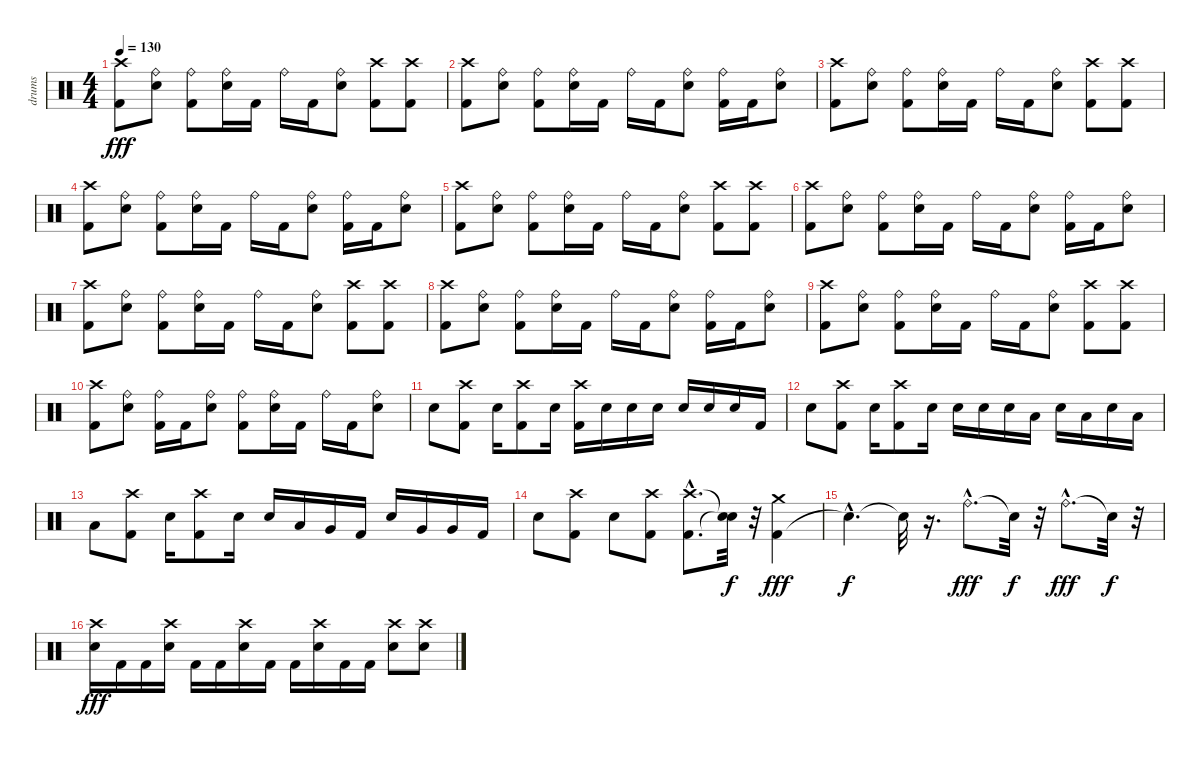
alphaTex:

\track ("drums" "drums") {instrument percussion}
\staff {score}
\articulation defaults
\ts (4 4)
\tempo 130
\clef neutral
\ks c
("Crash high (hit)" "Kick (hit) 2").8{dy fff} ("Ride (bell)" "Snare (hit) 2").8 ("Ride (bell)" "Kick (hit) 2").8 ("Ride (bell)" "Snare (hit) 2").16 "Kick (hit) 2".16 "Ride (bell)".16 "Kick (hit) 2".16 ("Ride (bell)" "Snare (hit) 2").8 ("Crash high (hit)" "Kick (hit) 2").8 ("Crash high (hit)" "Kick (hit) 2").8 |
("Crash high (hit)" "Kick (hit) 2").8 ("Ride (bell)" "Snare (hit) 2").8 ("Ride (bell)" "Kick (hit) 2").8 ("Ride (bell)" "Snare (hit) 2").16 "Kick (hit) 2".16 "Ride (bell)".16 "Kick (hit) 2".16 ("Ride (bell)" "Snare (hit) 2").8 ("Ride (bell)" "Kick (hit) 2").16 "Kick (hit) 2".16 ("Ride (bell)" "Snare (hit) 2").8 |
("Crash high (hit)" "Kick (hit) 2").8 ("Ride (bell)" "Snare (hit) 2").8 ("Ride (bell)" "Kick (hit) 2").8 ("Ride (bell)" "Snare (hit) 2").16 "Kick (hit) 2".16 "Ride (bell)".16 "Kick (hit) 2".16 ("Ride (bell)" "Snare (hit) 2").8 ("Crash high (hit)" "Kick (hit) 2").8 ("Crash high (hit)" "Kick (hit) 2").8 |
("Crash high (hit)" "Kick (hit) 2").8 ("Ride (bell)" "Snare (hit) 2").8 ("Ride (bell)" "Kick (hit) 2").8 ("Ride (bell)" "Snare (hit) 2").16 "Kick (hit) 2".16 "Ride (bell)".16 "Kick (hit) 2".16 ("Ride (bell)" "Snare (hit) 2").8 ("Ride (bell)" "Kick (hit) 2").16 "Kick (hit) 2".16 ("Ride (bell)" "Snare (hit) 2").8 |
("Crash high (hit)" "Kick (hit) 2").8 ("Ride (bell)" "Snare (hit) 2").8 ("Ride (bell)" "Kick (hit) 2").8 ("Ride (bell)" "Snare (hit) 2").16 "Kick (hit) 2".16 "Ride (bell)".16 "Kick (hit) 2".16 ("Ride (bell)" "Snare (hit) 2").8 ("Crash high (hit)" "Kick (hit) 2").8 ("Crash high (hit)" "Kick (hit) 2").8 |
("Crash high (hit)" "Kick (hit) 2").8 ("Ride (bell)" "Snare (hit) 2").8 ("Ride (bell)" "Kick (hit) 2").8 ("Ride (bell)" "Snare (hit) 2").16 "Kick (hit) 2".16 "Ride (bell)".16 "Kick (hit) 2".16 ("Ride (bell)" "Snare (hit) 2").8 ("Ride (bell)" "Kick (hit) 2").16 "Kick (hit) 2".16 ("Ride (bell)" "Snare (hit) 2").8 |
("Crash high (hit)" "Kick (hit) 2").8 ("Ride (bell)" "Snare (hit) 2").8 ("Ride (bell)" "Kick (hit) 2").8 ("Ride (bell)" "Snare (hit) 2").16 "Kick (hit) 2".16 "Ride (bell)".16 "Kick (hit) 2".16 ("Ride (bell)" "Snare (hit) 2").8 ("Crash high (hit)" "Kick (hit) 2").8 ("Crash high (hit)" "Kick (hit) 2").8 |
("Crash high (hit)" "Kick (hit) 2").8 ("Ride (bell)" "Snare (hit) 2").8 ("Ride (bell)" "Kick (hit) 2").8 ("Ride (bell)" "Snare (hit) 2").16 "Kick (hit) 2".16 "Ride (bell)".16 "Kick (hit) 2".16 ("Ride (bell)" "Snare (hit) 2").8 ("Ride (bell)" "Kick (hit) 2").16 "Kick (hit) 2".16 ("Ride (bell)" "Snare (hit) 2").8 |
("Crash high (hit)" "Kick (hit) 2").8 ("Ride (bell)" "Snare (hit) 2").8 ("Ride (bell)" "Kick (hit) 2").8 ("Ride (bell)" "Snare (hit) 2").16 "Kick (hit) 2".16 "Ride (bell)".16 "Kick (hit) 2".16 ("Ride (bell)" "Snare (hit) 2").8 ("Crash high (hit)" "Kick (hit) 2").8 ("Crash high (hit)" "Kick (hit) 2").8 |
("Crash high (hit)" "Kick (hit) 2").8 ("Ride (bell)" "Snare (hit) 2").8 ("Ride (bell)" "Kick (hit) 2").16 "Kick (hit) 2".16 ("Ride (bell)" "Snare (hit) 2").8 ("Ride (bell)" "Kick (hit) 2").8 ("Ride (bell)" "Snare (hit) 2").16 "Kick (hit) 2".16 "Ride (bell)".16 "Kick (hit) 2".16 ("Ride (bell)" "Snare (hit) 2").8 |
"Snare (hit) 2".8 ("Crash high (hit)" "Kick (hit) 2").8 "Snare (hit) 2".16 ("Crash high (hit)" "Kick (hit) 2").8 "Snare (hit) 2".16 ("Crash high (hit)" "Kick (hit) 2").16 "Snare (hit) 2".16 "Snare (hit) 2".16 "Snare (hit) 2".16 "Snare (hit) 2".16 "Snare (hit) 2".16 "Snare (hit) 2".16 "Kick (hit) 2".16 |
"Snare (hit) 2".8 ("Crash high (hit)" "Kick (hit) 2").8 "Snare (hit) 2".16 ("Crash high (hit)" "Kick (hit) 2").8 "Snare (hit) 2".16 "Snare (hit) 2".16 "Snare (hit) 2".16 "Snare (hit) 2".16 "Low Tom (hit)".16 "Snare (hit) 2".16 "Low Tom (hit)".16 "Snare (hit) 2".16 "Low Tom (hit)".16 |
"Low Tom (hit)".8 ("Crash high (hit)" "Kick (hit) 2").8 "Snare (hit) 2".16 ("Crash high (hit)" "Kick (hit) 2").8 "Snare (hit) 2".16 "Snare (hit) 2".16 "Low Tom (hit)".16 "Very Low Tom (hit)".16 "Kick (hit) 2".16 "Snare (hit) 2".16 "Very Low Tom (hit)".16 "Very Low Tom (hit)".16 "Kick (hit) 2".16 |
"Snare (hit) 2".8 ("Crash high (hit)" "Kick (hit) 2").8 "Snare (hit) 2".8 ("Crash high (hit)" "Kick (hit) 2").8 ("Kick (hit) 2"{hac} "Crash high (hit)"{hac}).8{d} ("Snare (hit)"{t} "Snare (hit)"{t}).32{dy f} r.32 ("Kick (hit) 2" "Crash medium (hit)").4{dy fff} |
"Snare (hit)"{hac t}.4{d dy f} "Snare (hit)"{t}.32 r.16{d} "Ride (bell)"{hac}.8{d dy fff} "Snare (hit)"{t}.32{dy f} r.32 "Ride (bell)"{hac}.8{d dy fff} "Snare (hit)"{t}.32{dy f} r.32 |
("Crash high (hit)" "Snare (hit) 2").16{dy fff} "Kick (hit) 2".16 "Kick (hit) 2".16 ("Crash high (hit)" "Snare (hit) 2").16 "Kick (hit) 2".16 "Kick (hit) 2".16 ("Crash high (hit)" "Snare (hit) 2").16 "Kick (hit) 2".16 "Kick (hit) 2".16 ("Crash high (hit)" "Snare (hit) 2").16 "Kick (hit) 2".16 "Kick (hit) 2".16 ("Crash high (hit)" "Snare (hit) 2").8 ("Crash high (hit)" "Snare (hit) 2").8
